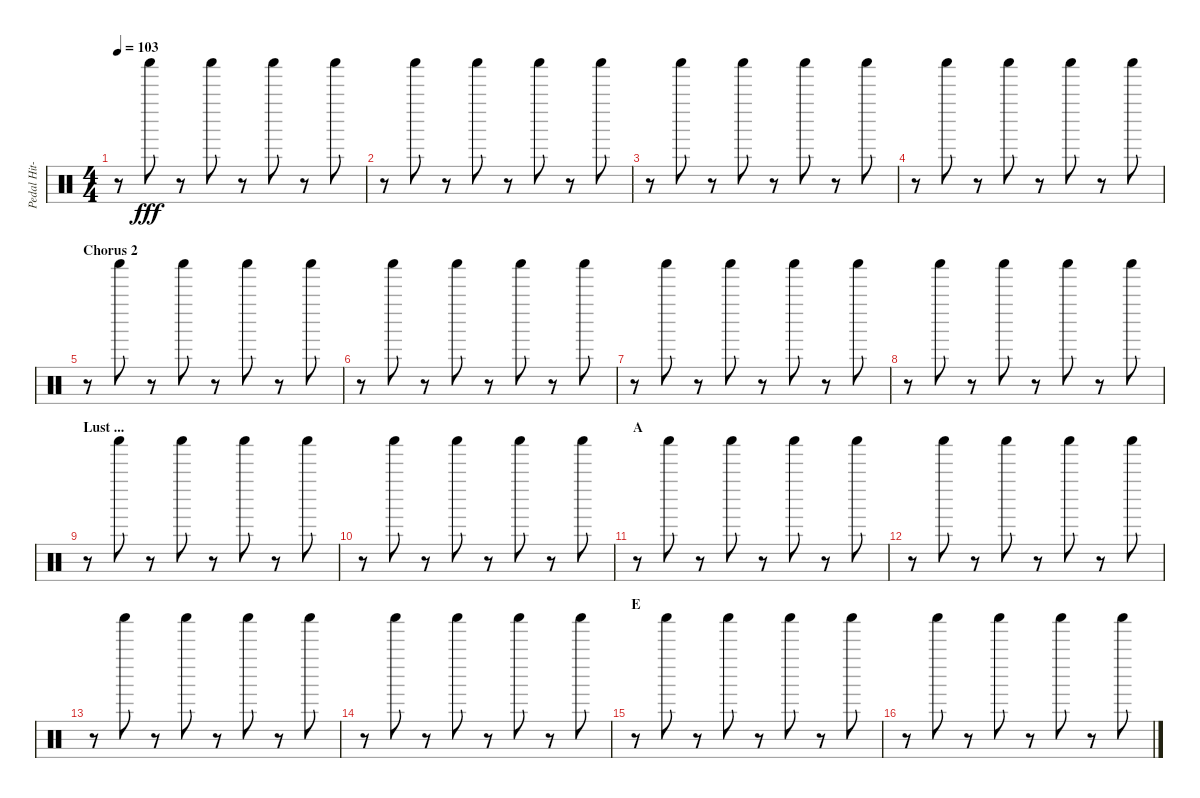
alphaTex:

\track ("Pedal Hit-Hat" "Pedal Hit-") {instrument percussion}
\staff {score}
\articulation defaults
\ts (4 4)
\tempo 103
\clef neutral
\ks c
r.8{dy fff} "Shaker (hit)".8 r.8 "Shaker (hit)".8 r.8 "Shaker (hit)".8 r.8 "Shaker (hit)".8 |
r.8 "Shaker (hit)".8 r.8 "Shaker (hit)".8 r.8 "Shaker (hit)".8 r.8 "Shaker (hit)".8 |
r.8 "Shaker (hit)".8 r.8 "Shaker (hit)".8 r.8 "Shaker (hit)".8 r.8 "Shaker (hit)".8 |
r.8 "Shaker (hit)".8 r.8 "Shaker (hit)".8 r.8 "Shaker (hit)".8 r.8 "Shaker (hit)".8 |
\section ("" "Chorus 2")
r.8 "Shaker (hit)".8 r.8 "Shaker (hit)".8 r.8 "Shaker (hit)".8 r.8 "Shaker (hit)".8 |
r.8 "Shaker (hit)".8 r.8 "Shaker (hit)".8 r.8 "Shaker (hit)".8 r.8 "Shaker (hit)".8 |
r.8 "Shaker (hit)".8 r.8 "Shaker (hit)".8 r.8 "Shaker (hit)".8 r.8 "Shaker (hit)".8 |
r.8 "Shaker (hit)".8 r.8 "Shaker (hit)".8 r.8 "Shaker (hit)".8 r.8 "Shaker (hit)".8 |
\section ("" "Lust ...")
r.8 "Shaker (hit)".8 r.8 "Shaker (hit)".8 r.8 "Shaker (hit)".8 r.8 "Shaker (hit)".8 |
r.8 "Shaker (hit)".8 r.8 "Shaker (hit)".8 r.8 "Shaker (hit)".8 r.8 "Shaker (hit)".8 |
\section ("" "A")
r.8 "Shaker (hit)".8 r.8 "Shaker (hit)".8 r.8 "Shaker (hit)".8 r.8 "Shaker (hit)".8 |
r.8 "Shaker (hit)".8 r.8 "Shaker (hit)".8 r.8 "Shaker (hit)".8 r.8 "Shaker (hit)".8 |
r.8 "Shaker (hit)".8 r.8 "Shaker (hit)".8 r.8 "Shaker (hit)".8 r.8 "Shaker (hit)".8 |
r.8 "Shaker (hit)".8 r.8 "Shaker (hit)".8 r.8 "Shaker (hit)".8 r.8 "Shaker (hit)".8 |
\section ("" "E")
r.8 "Shaker (hit)".8 r.8 "Shaker (hit)".8 r.8 "Shaker (hit)".8 r.8 "Shaker (hit)".8 |
r.8 "Shaker (hit)".8 r.8 "Shaker (hit)".8 r.8 "Shaker (hit)".8 r.8 "Shaker (hit)".8
